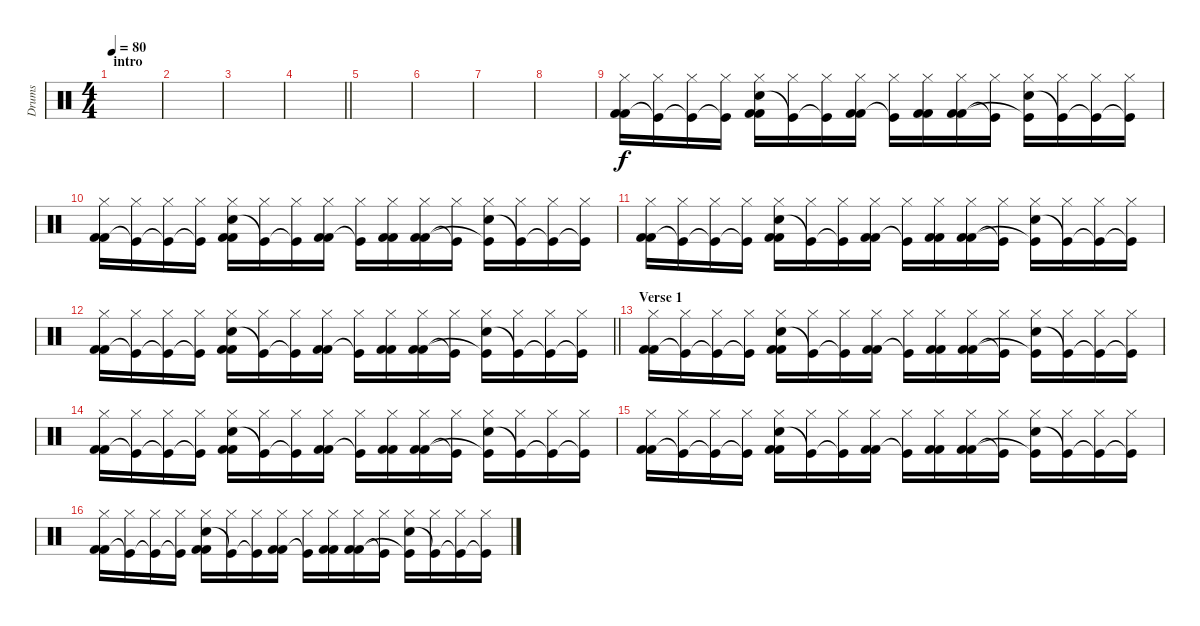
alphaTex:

\track ("Drums" "Drums") {instrument percussion}
\staff {score}
\articulation defaults
\ts (4 4)
\section ("" "intro")
\tempo 80
\clef neutral
\ks c
|
|
|
\barLineRight lightlight
|
|
|
|
|
("Hi-Hat (closed)" "Kick (hit) 2" "Kick (hit) 2").16 ("Hi-Hat (closed)" "Kick (hit)"{t}).16 ("Hi-Hat (closed)" "Kick (hit)"{t}).16 ("Hi-Hat (closed)" "Kick (hit)"{t}).16 ("Hi-Hat (closed)" "Electric Snare (hit)" "Kick (hit) 2" "Kick (hit) 2").16 ("Hi-Hat (closed)" "Kick (hit)"{t}).16 ("Hi-Hat (closed)" "Kick (hit)"{t}).16 ("Hi-Hat (closed)" "Kick (hit) 2" "Kick (hit) 2").16 ("Hi-Hat (closed)" "Kick (hit)"{t}).16 ("Hi-Hat (closed)" "Kick (hit) 2" "Kick (hit) 2").16 ("Hi-Hat (closed)" "Kick (hit) 2" "Kick (hit) 2").16 ("Hi-Hat (closed)" "Kick (hit)"{t}).16 ("Hi-Hat (closed)" "Electric Snare (hit)" "Kick (hit)"{t}).16 ("Hi-Hat (closed)" "Kick (hit)"{t}).16 ("Hi-Hat (closed)" "Kick (hit)"{t}).16 ("Hi-Hat (closed)" "Kick (hit)"{t}).16 |
("Hi-Hat (closed)" "Kick (hit) 2" "Kick (hit) 2").16 ("Hi-Hat (closed)" "Kick (hit)"{t}).16 ("Hi-Hat (closed)" "Kick (hit)"{t}).16 ("Hi-Hat (closed)" "Kick (hit)"{t}).16 ("Hi-Hat (closed)" "Electric Snare (hit)" "Kick (hit) 2" "Kick (hit) 2").16 ("Hi-Hat (closed)" "Kick (hit)"{t}).16 ("Hi-Hat (closed)" "Kick (hit)"{t}).16 ("Hi-Hat (closed)" "Kick (hit) 2" "Kick (hit) 2").16 ("Hi-Hat (closed)" "Kick (hit)"{t}).16 ("Hi-Hat (closed)" "Kick (hit) 2" "Kick (hit) 2").16 ("Hi-Hat (closed)" "Kick (hit) 2" "Kick (hit) 2").16 ("Hi-Hat (closed)" "Kick (hit)"{t}).16 ("Hi-Hat (closed)" "Electric Snare (hit)" "Kick (hit)"{t}).16 ("Hi-Hat (closed)" "Kick (hit)"{t}).16 ("Hi-Hat (closed)" "Kick (hit)"{t}).16 ("Hi-Hat (closed)" "Kick (hit)"{t}).16 |
("Hi-Hat (closed)" "Kick (hit) 2" "Kick (hit) 2").16 ("Hi-Hat (closed)" "Kick (hit)"{t}).16 ("Hi-Hat (closed)" "Kick (hit)"{t}).16 ("Hi-Hat (closed)" "Kick (hit)"{t}).16 ("Hi-Hat (closed)" "Electric Snare (hit)" "Kick (hit) 2" "Kick (hit) 2").16 ("Hi-Hat (closed)" "Kick (hit)"{t}).16 ("Hi-Hat (closed)" "Kick (hit)"{t}).16 ("Hi-Hat (closed)" "Kick (hit) 2" "Kick (hit) 2").16 ("Hi-Hat (closed)" "Kick (hit)"{t}).16 ("Hi-Hat (closed)" "Kick (hit) 2" "Kick (hit) 2").16 ("Hi-Hat (closed)" "Kick (hit) 2" "Kick (hit) 2").16 ("Hi-Hat (closed)" "Kick (hit)"{t}).16 ("Hi-Hat (closed)" "Electric Snare (hit)" "Kick (hit)"{t}).16 ("Hi-Hat (closed)" "Kick (hit)"{t}).16 ("Hi-Hat (closed)" "Kick (hit)"{t}).16 ("Hi-Hat (closed)" "Kick (hit)"{t}).16 |
\barLineRight lightlight
("Hi-Hat (closed)" "Kick (hit) 2" "Kick (hit) 2").16 ("Hi-Hat (closed)" "Kick (hit)"{t}).16 ("Hi-Hat (closed)" "Kick (hit)"{t}).16 ("Hi-Hat (closed)" "Kick (hit)"{t}).16 ("Hi-Hat (closed)" "Electric Snare (hit)" "Kick (hit) 2" "Kick (hit) 2").16 ("Hi-Hat (closed)" "Kick (hit)"{t}).16 ("Hi-Hat (closed)" "Kick (hit)"{t}).16 ("Hi-Hat (closed)" "Kick (hit) 2" "Kick (hit) 2").16 ("Hi-Hat (closed)" "Kick (hit)"{t}).16 ("Hi-Hat (closed)" "Kick (hit) 2" "Kick (hit) 2").16 ("Hi-Hat (closed)" "Kick (hit) 2" "Kick (hit) 2").16 ("Hi-Hat (closed)" "Kick (hit)"{t}).16 ("Hi-Hat (closed)" "Electric Snare (hit)" "Kick (hit)"{t}).16 ("Hi-Hat (closed)" "Kick (hit)"{t}).16 ("Hi-Hat (closed)" "Kick (hit)"{t}).16 ("Hi-Hat (closed)" "Kick (hit)"{t}).16 |
\section ("" "Verse 1")
("Hi-Hat (closed)" "Kick (hit) 2" "Kick (hit) 2").16 ("Hi-Hat (closed)" "Kick (hit)"{t}).16 ("Hi-Hat (closed)" "Kick (hit)"{t}).16 ("Hi-Hat (closed)" "Kick (hit)"{t}).16 ("Hi-Hat (closed)" "Electric Snare (hit)" "Kick (hit) 2" "Kick (hit) 2").16 ("Hi-Hat (closed)" "Kick (hit)"{t}).16 ("Hi-Hat (closed)" "Kick (hit)"{t}).16 ("Hi-Hat (closed)" "Kick (hit) 2" "Kick (hit) 2").16 ("Hi-Hat (closed)" "Kick (hit)"{t}).16 ("Hi-Hat (closed)" "Kick (hit) 2" "Kick (hit) 2").16 ("Hi-Hat (closed)" "Kick (hit) 2" "Kick (hit) 2").16 ("Hi-Hat (closed)" "Kick (hit)"{t}).16 ("Hi-Hat (closed)" "Electric Snare (hit)" "Kick (hit)"{t}).16 ("Hi-Hat (closed)" "Kick (hit)"{t}).16 ("Hi-Hat (closed)" "Kick (hit)"{t}).16 ("Hi-Hat (closed)" "Kick (hit)"{t}).16 |
("Hi-Hat (closed)" "Kick (hit) 2" "Kick (hit) 2").16 ("Hi-Hat (closed)" "Kick (hit)"{t}).16 ("Hi-Hat (closed)" "Kick (hit)"{t}).16 ("Hi-Hat (closed)" "Kick (hit)"{t}).16 ("Hi-Hat (closed)" "Electric Snare (hit)" "Kick (hit) 2" "Kick (hit) 2").16 ("Hi-Hat (closed)" "Kick (hit)"{t}).16 ("Hi-Hat (closed)" "Kick (hit)"{t}).16 ("Hi-Hat (closed)" "Kick (hit) 2" "Kick (hit) 2").16 ("Hi-Hat (closed)" "Kick (hit)"{t}).16 ("Hi-Hat (closed)" "Kick (hit) 2" "Kick (hit) 2").16 ("Hi-Hat (closed)" "Kick (hit) 2" "Kick (hit) 2").16 ("Hi-Hat (closed)" "Kick (hit)"{t}).16 ("Hi-Hat (closed)" "Electric Snare (hit)" "Kick (hit)"{t}).16 ("Hi-Hat (closed)" "Kick (hit)"{t}).16 ("Hi-Hat (closed)" "Kick (hit)"{t}).16 ("Hi-Hat (closed)" "Kick (hit)"{t}).16 |
("Hi-Hat (closed)" "Kick (hit) 2" "Kick (hit) 2").16 ("Hi-Hat (closed)" "Kick (hit)"{t}).16 ("Hi-Hat (closed)" "Kick (hit)"{t}).16 ("Hi-Hat (closed)" "Kick (hit)"{t}).16 ("Hi-Hat (closed)" "Electric Snare (hit)" "Kick (hit) 2" "Kick (hit) 2").16 ("Hi-Hat (closed)" "Kick (hit)"{t}).16 ("Hi-Hat (closed)" "Kick (hit)"{t}).16 ("Hi-Hat (closed)" "Kick (hit) 2" "Kick (hit) 2").16 ("Hi-Hat (closed)" "Kick (hit)"{t}).16 ("Hi-Hat (closed)" "Kick (hit) 2" "Kick (hit) 2").16 ("Hi-Hat (closed)" "Kick (hit) 2" "Kick (hit) 2").16 ("Hi-Hat (closed)" "Kick (hit)"{t}).16 ("Hi-Hat (closed)" "Electric Snare (hit)" "Kick (hit)"{t}).16 ("Hi-Hat (closed)" "Kick (hit)"{t}).16 ("Hi-Hat (closed)" "Kick (hit)"{t}).16 ("Hi-Hat (closed)" "Kick (hit)"{t}).16 |
("Hi-Hat (closed)" "Kick (hit) 2" "Kick (hit) 2").16 ("Hi-Hat (closed)" "Kick (hit)"{t}).16 ("Hi-Hat (closed)" "Kick (hit)"{t}).16 ("Hi-Hat (closed)" "Kick (hit)"{t}).16 ("Hi-Hat (closed)" "Electric Snare (hit)" "Kick (hit) 2" "Kick (hit) 2").16 ("Hi-Hat (closed)" "Kick (hit)"{t}).16 ("Hi-Hat (closed)" "Kick (hit)"{t}).16 ("Hi-Hat (closed)" "Kick (hit) 2" "Kick (hit) 2").16 ("Hi-Hat (closed)" "Kick (hit)"{t}).16 ("Hi-Hat (closed)" "Kick (hit) 2" "Kick (hit) 2").16 ("Hi-Hat (closed)" "Kick (hit) 2" "Kick (hit) 2").16 ("Hi-Hat (closed)" "Kick (hit)"{t}).16 ("Hi-Hat (closed)" "Electric Snare (hit)" "Kick (hit)"{t}).16 ("Hi-Hat (closed)" "Kick (hit)"{t}).16 ("Hi-Hat (closed)" "Kick (hit)"{t}).16 ("Hi-Hat (closed)" "Kick (hit)"{t}).16
